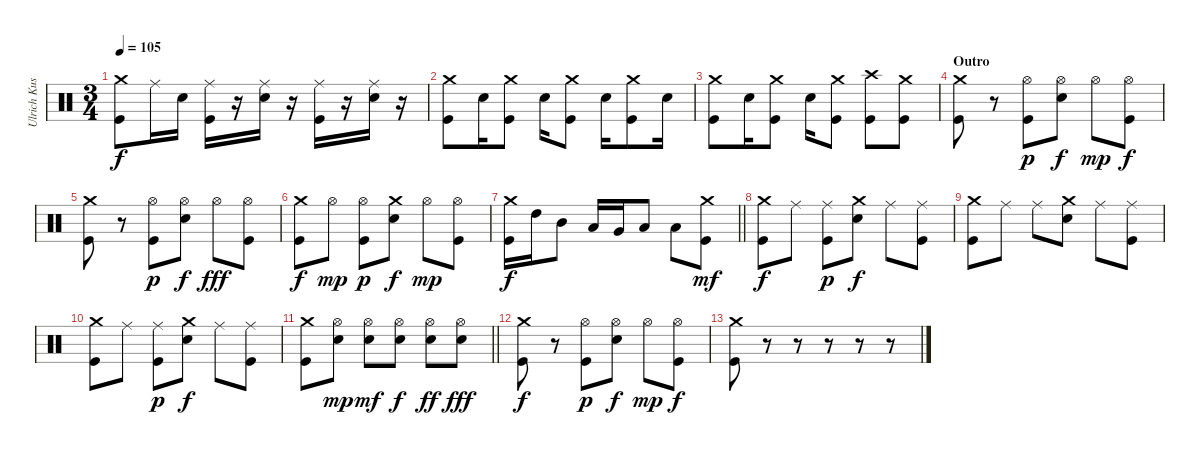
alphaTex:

\track ("Ulrich Kusch" "Ulrich Kus") {instrument percussion}
\staff {score}
\articulation defaults
\ts (3 4)
\tempo 105
\clef neutral
\ks c
("Crash medium (hit)" "Kick (hit)").8{dy f} "Ride (middle)".16 "Electric Snare (hit)".16 ("Ride (middle)" "Kick (hit)").16 r.16 ("Ride (middle)" "Electric Snare (hit)").16 r.16 ("Ride (middle)" "Kick (hit)").16 r.16 ("Ride (middle)" "Electric Snare (hit)").16 r.16 |
("Crash medium (hit)" "Kick (hit)").8 "Electric Snare (hit)".16 ("Crash medium (hit)" "Kick (hit)").8 "Electric Snare (hit)".16 ("Crash medium (hit)" "Kick (hit)").8 "Electric Snare (hit)".16 ("Crash medium (hit)" "Kick (hit)").8 "Electric Snare (hit)".16 |
("Crash medium (hit)" "Kick (hit)").8 "Electric Snare (hit)".16 ("Crash medium (hit)" "Kick (hit)").8 "Electric Snare (hit)".16 ("Crash medium (hit)" "Kick (hit)").8 ("Crash high (hit)" "Kick (hit)").8 ("Crash medium (hit)" "Kick (hit)").8 |
\section ("" "Outro")
("Crash medium (hit)" "Kick (hit)").8 r.8 ("Hi-Hat (open)" "Kick (hit)").8{dy p} ("Hi-Hat (open)" "Electric Snare (hit)").8{dy f} "Hi-Hat (open)".8{dy mp} ("Hi-Hat (open)" "Kick (hit)").8{dy f} |
("Crash medium (hit)" "Kick (hit)").8 r.8 ("Hi-Hat (open)" "Kick (hit)").8{dy p} ("Hi-Hat (open)" "Electric Snare (hit)").8{dy f} "Hi-Hat (open)".8{dy fff} ("Hi-Hat (open)" "Kick (hit)").8 |
("Crash medium (hit)" "Kick (hit)").8{dy f} "Hi-Hat (open)".8{dy mp} ("Hi-Hat (open)" "Kick (hit)").8{dy p} ("Crash medium (hit)" "Electric Snare (hit)").8{dy f} "Hi-Hat (open)".8{dy mp} ("Hi-Hat (open)" "Kick (hit)").8 |
\barLineRight lightlight
("Crash medium (hit)" "Kick (hit)").16{dy f} "High Tom (hit)".16 "Mid Tom (hit)".8 "Low Tom (hit)".16 "Very Low Tom (hit)".16 "Low Floor Tom (hit)".8 "Low Floor Tom (hit)".8 ("Crash medium (hit)" "Kick (hit)").8{dy mf} |
("Crash medium (hit)" "Kick (hit)").8{dy f} "Ride (middle)".8 ("Ride (middle)" "Kick (hit)").8{dy p} ("Crash medium (hit)" "Electric Snare (hit)").8{dy f} "Ride (middle)".8 ("Ride (middle)" "Kick (hit)").8 |
("Crash medium (hit)" "Kick (hit)").8 "Ride (middle)".8 "Ride (middle)".8 ("Crash medium (hit)" "Electric Snare (hit)").8 "Ride (middle)".8 ("Ride (middle)" "Kick (hit)").8 |
("Crash medium (hit)" "Kick (hit)").8 "Ride (middle)".8 ("Ride (middle)" "Kick (hit)").8{dy p} ("Crash medium (hit)" "Electric Snare (hit)").8{dy f} "Ride (middle)".8 ("Ride (middle)" "Kick (hit)").8 |
\barLineRight lightlight
("Crash medium (hit)" "Kick (hit)").8 ("Hi-Hat (open)" "Electric Snare (hit)").8{dy mp} ("Hi-Hat (open)" "Electric Snare (hit)").8{dy mf} ("Hi-Hat (open)" "Electric Snare (hit)").8{dy f} ("Hi-Hat (open)" "Electric Snare (hit)").8{dy ff} ("Hi-Hat (open)" "Electric Snare (hit)").8{dy fff} |
("Crash medium (hit)" "Kick (hit)").8{dy f} r.8 ("Hi-Hat (open)" "Kick (hit)").8{dy p} ("Hi-Hat (open)" "Electric Snare (hit)").8{dy f} "Hi-Hat (open)".8{dy mp} ("Hi-Hat (open)" "Kick (hit)").8{dy f} |
("Crash medium (hit)" "Kick (hit)").8 r.8 r.8 r.8 r.8 r.8
